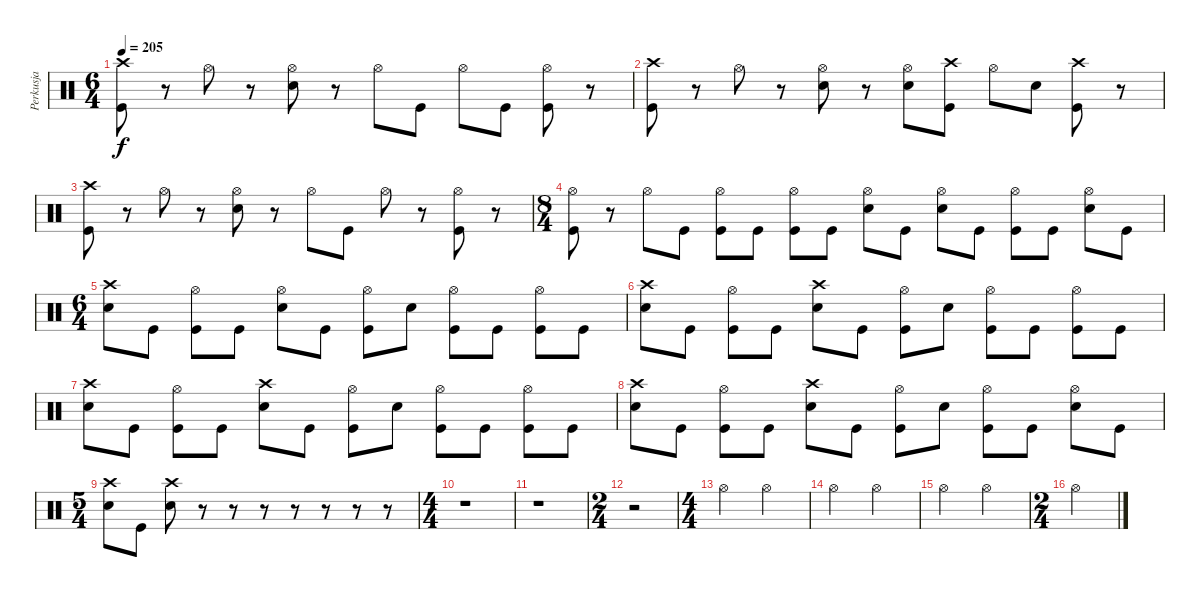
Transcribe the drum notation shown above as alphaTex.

\track ("Perkusja" "Perkusja") {instrument percussion}
\staff {score}
\articulation defaults
\ts (6 4)
\tempo 205
\clef neutral
\ks c
("Crash high (hit)" "Kick (hit)").8{dy f} r.8 "Hi-Hat (open)".8 r.8 ("Hi-Hat (open)" "Snare (hit) 2").8 r.8 "Hi-Hat (open)".8 "Kick (hit)".8 "Hi-Hat (open)".8 "Kick (hit)".8 ("Hi-Hat (open)" "Kick (hit)").8 r.8 |
("Crash high (hit)" "Kick (hit)").8 r.8 "Hi-Hat (open)".8 r.8 ("Hi-Hat (open)" "Snare (hit) 2").8 r.8 ("Hi-Hat (open)" "Snare (hit) 2").8 ("Crash high (hit)" "Kick (hit)").8 "Hi-Hat (open)".8 "Snare (hit) 2".8 ("Crash high (hit)" "Kick (hit)").8 r.8 |
("Crash high (hit)" "Kick (hit)").8 r.8 "Hi-Hat (open)".8 r.8 ("Hi-Hat (open)" "Snare (hit) 2").8 r.8 "Hi-Hat (open)".8 "Kick (hit)".8 "Hi-Hat (open)".8 r.8 ("Hi-Hat (open)" "Kick (hit)").8 r.8 |
\ts (8 4)
("Hi-Hat (open)" "Kick (hit)").8 r.8 "Hi-Hat (open)".8 "Kick (hit)".8 ("Hi-Hat (open)" "Kick (hit)").8 "Kick (hit)".8 ("Hi-Hat (open)" "Kick (hit)").8 "Kick (hit)".8 ("Hi-Hat (open)" "Snare (hit) 2").8 "Kick (hit)".8 ("Hi-Hat (open)" "Snare (hit) 2").8 "Kick (hit)".8 ("Hi-Hat (open)" "Kick (hit)").8 "Kick (hit)".8 ("Hi-Hat (open)" "Snare (hit) 2").8 "Kick (hit)".8 |
\ts (6 4)
("Crash high (hit)" "Snare (hit) 2").8 "Kick (hit)".8 ("Hi-Hat (open)" "Kick (hit)").8 "Kick (hit)".8 ("Hi-Hat (open)" "Snare (hit) 2").8 "Kick (hit)".8 ("Hi-Hat (open)" "Kick (hit)").8 "Snare (hit) 2".8 ("Hi-Hat (open)" "Kick (hit)").8 "Kick (hit)".8 ("Hi-Hat (open)" "Kick (hit)").8 "Kick (hit)".8 |
("Crash high (hit)" "Snare (hit) 2").8 "Kick (hit)".8 ("Hi-Hat (open)" "Kick (hit)").8 "Kick (hit)".8 ("Crash high (hit)" "Snare (hit) 2").8 "Kick (hit)".8 ("Hi-Hat (open)" "Kick (hit)").8 "Snare (hit) 2".8 ("Hi-Hat (open)" "Kick (hit)").8 "Kick (hit)".8 ("Hi-Hat (open)" "Kick (hit)").8 "Kick (hit)".8 |
("Crash high (hit)" "Snare (hit) 2").8 "Kick (hit)".8 ("Hi-Hat (open)" "Kick (hit)").8 "Kick (hit)".8 ("Crash high (hit)" "Snare (hit) 2").8 "Kick (hit)".8 ("Hi-Hat (open)" "Kick (hit)").8 "Snare (hit) 2".8 ("Hi-Hat (open)" "Kick (hit)").8 "Kick (hit)".8 ("Hi-Hat (open)" "Kick (hit)").8 "Kick (hit)".8 |
("Crash high (hit)" "Snare (hit) 2").8 "Kick (hit)".8 ("Hi-Hat (open)" "Kick (hit)").8 "Kick (hit)".8 ("Crash high (hit)" "Snare (hit) 2").8 "Kick (hit)".8 ("Hi-Hat (open)" "Kick (hit)").8 "Snare (hit) 2".8 ("Hi-Hat (open)" "Kick (hit)").8 "Kick (hit)".8 ("Hi-Hat (open)" "Snare (hit) 2").8 "Kick (hit)".8 |
\ts (5 4)
("Crash high (hit)" "Snare (hit) 2").8 "Kick (hit)".8 ("Crash high (hit)" "Snare (hit) 2").8 r.8 r.8 r.8 r.8 r.8 r.8 r.8 |
\ts (4 4)
r.1 |
r.1 |
\ts (2 4)
r.2 |
\ts (4 4)
"Hi-Hat (open)".2 "Hi-Hat (open)".2 |
"Hi-Hat (open)".2 "Hi-Hat (open)".2 |
"Hi-Hat (open)".2 "Hi-Hat (open)".2 |
\ts (2 4)
"Hi-Hat (open)".2
